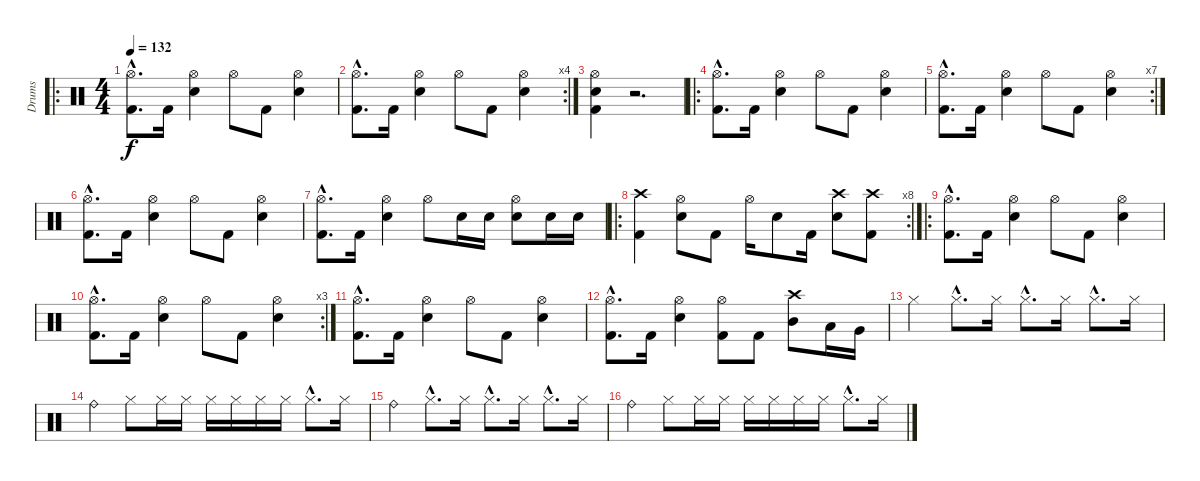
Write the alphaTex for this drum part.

\track ("Drums" "Drums") {instrument percussion}
\staff {score}
\articulation defaults
\ro
\ts (4 4)
\tempo 132
\clef neutral
\ks c
("Hi-Hat (open)"{hac} "Kick (hit) 2"{hac}).8{d dy f} "Kick (hit) 2".16 ("Hi-Hat (open)" "Electric Snare (hit)").4 "Hi-Hat (open)".8 "Kick (hit) 2".8 ("Hi-Hat (open)" "Electric Snare (hit)").4 |
\rc 4
("Hi-Hat (open)"{hac} "Kick (hit) 2"{hac}).8{d} "Kick (hit) 2".16 ("Hi-Hat (open)" "Electric Snare (hit)").4 "Hi-Hat (open)".8 "Kick (hit) 2".8 ("Hi-Hat (open)" "Electric Snare (hit)").4 |
("Hi-Hat (open)" "Electric Snare (hit)" "Kick (hit) 2").4 r.2{d} |
\ro
("Hi-Hat (open)"{hac} "Kick (hit) 2"{hac}).8{d} "Kick (hit) 2".16 ("Hi-Hat (open)" "Electric Snare (hit)").4 "Hi-Hat (open)".8 "Kick (hit) 2".8 ("Hi-Hat (open)" "Electric Snare (hit)").4 |
\rc 7
("Hi-Hat (open)"{hac} "Kick (hit) 2"{hac}).8{d} "Kick (hit) 2".16 ("Hi-Hat (open)" "Electric Snare (hit)").4 "Hi-Hat (open)".8 "Kick (hit) 2".8 ("Hi-Hat (open)" "Electric Snare (hit)").4 |
("Hi-Hat (open)"{hac} "Kick (hit) 2"{hac}).8{d} "Kick (hit) 2".16 ("Hi-Hat (open)" "Electric Snare (hit)").4 "Hi-Hat (open)".8 "Kick (hit) 2".8 ("Hi-Hat (open)" "Electric Snare (hit)").4 |
("Hi-Hat (open)"{hac} "Kick (hit) 2"{hac}).8{d} "Kick (hit) 2".16 ("Hi-Hat (open)" "Electric Snare (hit)").4 "Hi-Hat (open)".8 "Electric Snare (hit)".16 "Electric Snare (hit)".16 ("Hi-Hat (open)" "Electric Snare (hit)").8 "Electric Snare (hit)".16 "Electric Snare (hit)".16 |
\ro
\rc 8
("Crash high (hit)" "Kick (hit) 2").4 ("Hi-Hat (open)" "Electric Snare (hit)").8 "Kick (hit) 2".8 "Hi-Hat (open)".16 "Electric Snare (hit)".8 "Kick (hit) 2".16 ("Crash high (hit)" "Electric Snare (hit)").8 ("Crash high (hit)" "Kick (hit) 2").8 |
\ro
("Hi-Hat (open)"{hac} "Kick (hit) 2"{hac}).8{d} "Kick (hit) 2".16 ("Hi-Hat (open)" "Electric Snare (hit)").4 "Hi-Hat (open)".8 "Kick (hit) 2".8 ("Hi-Hat (open)" "Electric Snare (hit)").4 |
\rc 3
("Hi-Hat (open)"{hac} "Kick (hit) 2"{hac}).8{d} "Kick (hit) 2".16 ("Hi-Hat (open)" "Electric Snare (hit)").4 "Hi-Hat (open)".8 "Kick (hit) 2".8 ("Hi-Hat (open)" "Electric Snare (hit)").4 |
("Hi-Hat (open)"{hac} "Kick (hit) 2"{hac}).8{d} "Kick (hit) 2".16 ("Hi-Hat (open)" "Electric Snare (hit)").4 "Hi-Hat (open)".8 "Kick (hit) 2".8 ("Hi-Hat (open)" "Electric Snare (hit)").4 |
("Hi-Hat (open)"{hac} "Kick (hit) 2"{hac}).8{d} "Kick (hit) 2".16 ("Hi-Hat (open)" "Electric Snare (hit)").4 ("Hi-Hat (open)" "Kick (hit) 2").8 "Kick (hit) 2".8 ("Crash high (hit)" "Mid Tom (hit)").8 "Low Tom (hit)".16 "Very Low Tom (hit)".16 |
"Hi-Hat (closed)".4 "Hi-Hat (closed)"{hac}.8{d} "Hi-Hat (closed)".16 "Hi-Hat (closed)"{hac}.8{d} "Hi-Hat (closed)".16 "Hi-Hat (closed)"{hac}.8{d} "Hi-Hat (closed)".16 |
"Ride (bell)".4 "Hi-Hat (closed)".8 "Hi-Hat (closed)".16 "Hi-Hat (closed)".16 "Hi-Hat (closed)".16 "Hi-Hat (closed)".16 "Hi-Hat (closed)".16 "Hi-Hat (closed)".16 "Hi-Hat (closed)"{hac}.8{d} "Hi-Hat (closed)".16 |
"Ride (bell)".4 "Hi-Hat (closed)"{hac}.8{d} "Hi-Hat (closed)".16 "Hi-Hat (closed)"{hac}.8{d} "Hi-Hat (closed)".16 "Hi-Hat (closed)"{hac}.8{d} "Hi-Hat (closed)".16 |
"Ride (bell)".4 "Hi-Hat (closed)".8 "Hi-Hat (closed)".16 "Hi-Hat (closed)".16 "Hi-Hat (closed)".16 "Hi-Hat (closed)".16 "Hi-Hat (closed)".16 "Hi-Hat (closed)".16 "Hi-Hat (closed)"{hac}.8{d} "Hi-Hat (closed)".16
